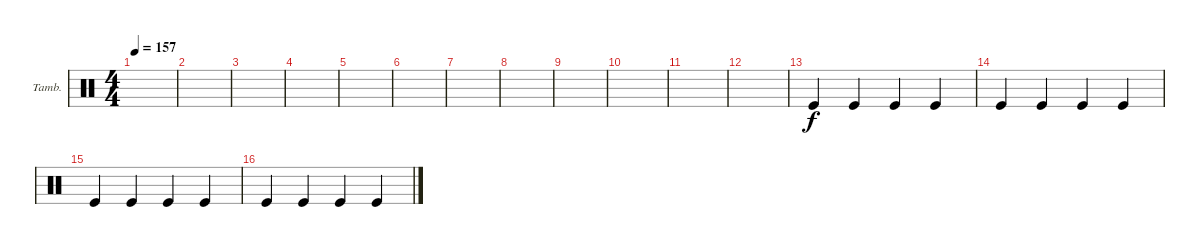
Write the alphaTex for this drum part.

\defaultSystemsLayout 4
\bracketExtendMode groupsimilarinstruments
\firstSystemTrackNameOrientation horizontal
\otherSystemsTrackNameOrientation horizontal
\track ("Tambourine" "Tamb.") {instrument percussion}
\staff {score}
\articulation defaults
\ts (4 4)
\tempo 157
\clef neutral
\ks c
|
|
|
|
|
|
|
|
|
|
|
|
"Kick (hit)".4 "Kick (hit)".4 "Kick (hit)".4 "Kick (hit)".4 |
"Kick (hit)".4 "Kick (hit)".4 "Kick (hit)".4 "Kick (hit)".4 |
"Kick (hit)".4 "Kick (hit)".4 "Kick (hit)".4 "Kick (hit)".4 |
"Kick (hit)".4 "Kick (hit)".4 "Kick (hit)".4 "Kick (hit)".4
